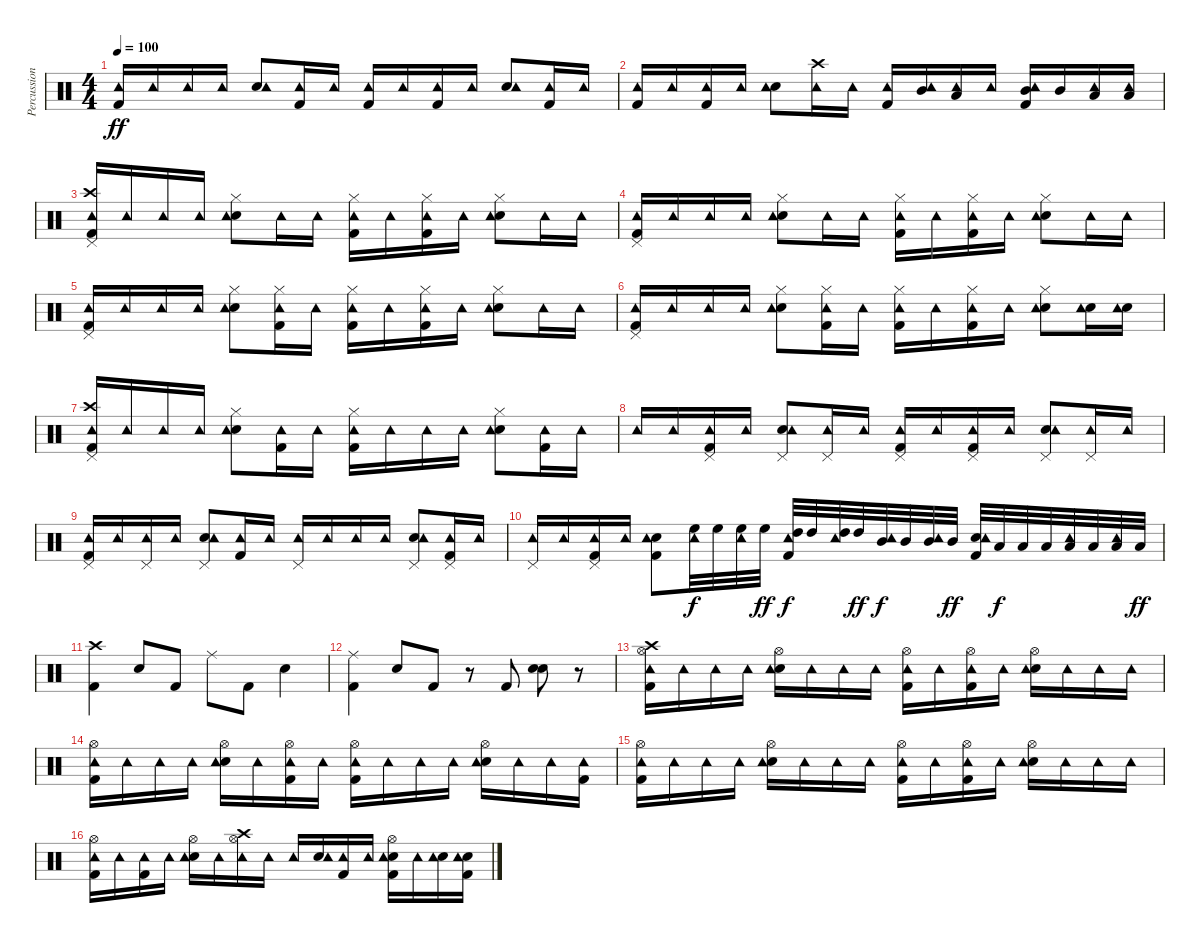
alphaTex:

\track ("Percussions" "Percussion") {instrument percussion}
\staff {score}
\articulation defaults
\ts (4 4)
\tempo 100
\clef neutral
\ks c
("Kick (hit) 2" "Tambourine (hit)").16{dy ff} "Tambourine (hit)".16 "Tambourine (hit)".16 "Tambourine (hit)".16 ("Snare (hit) 2" "Tambourine (hit)").8 ("Kick (hit) 2" "Tambourine (hit)").16 "Tambourine (hit)".16 ("Kick (hit) 2" "Tambourine (hit)").16 "Tambourine (hit)".16 ("Kick (hit) 2" "Tambourine (hit)").16 "Tambourine (hit)".16 ("Snare (hit) 2" "Tambourine (hit)").8 ("Kick (hit) 2" "Tambourine (hit)").16 "Tambourine (hit)".16 |
("Kick (hit) 2" "Tambourine (hit)").16 "Tambourine (hit)".16 ("Kick (hit) 2" "Tambourine (hit)").16 "Tambourine (hit)".16 ("Snare (hit) 2" "Tambourine (hit)").8 ("Crash high (hit)" "Tambourine (hit)").16 "Tambourine (hit)".16 ("Kick (hit) 2" "Tambourine (hit)").16 ("Mid Tom (hit)" "Tambourine (hit)").16 ("Low Tom (hit)" "Tambourine (hit)").16 "Tambourine (hit)".16 ("Kick (hit) 2" "Mid Tom (hit)" "Tambourine (hit)").16 "Mid Tom (hit)".16 ("Low Floor Tom (hit)" "Tambourine (hit)").16 ("Low Floor Tom (hit)" "Tambourine (hit)").16 |
("Kick (hit) 2" "Pedal Hi-Hat (hit)" "Crash high (hit)" "Tambourine (hit)").16 "Tambourine (hit)".16 "Tambourine (hit)".16 "Tambourine (hit)".16 ("Snare (hit) 2" "Hi-Hat (closed)" "Tambourine (hit)").8 "Tambourine (hit)".16 "Tambourine (hit)".16 ("Kick (hit) 2" "Hi-Hat (closed)" "Tambourine (hit)").16 "Tambourine (hit)".16 ("Kick (hit) 2" "Hi-Hat (closed)" "Tambourine (hit)").16 "Tambourine (hit)".16 ("Snare (hit) 2" "Hi-Hat (closed)" "Tambourine (hit)").8 "Tambourine (hit)".16 "Tambourine (hit)".16 |
("Kick (hit) 2" "Pedal Hi-Hat (hit)" "Tambourine (hit)").16 "Tambourine (hit)".16 "Tambourine (hit)".16 "Tambourine (hit)".16 ("Snare (hit) 2" "Hi-Hat (closed)" "Tambourine (hit)").8 "Tambourine (hit)".16 "Tambourine (hit)".16 ("Kick (hit) 2" "Hi-Hat (closed)" "Tambourine (hit)").16 "Tambourine (hit)".16 ("Kick (hit) 2" "Hi-Hat (closed)" "Tambourine (hit)").16 "Tambourine (hit)".16 ("Snare (hit) 2" "Hi-Hat (closed)" "Tambourine (hit)").8 "Tambourine (hit)".16 "Tambourine (hit)".16 |
("Kick (hit) 2" "Pedal Hi-Hat (hit)" "Tambourine (hit)").16 "Tambourine (hit)".16 "Tambourine (hit)".16 "Tambourine (hit)".16 ("Snare (hit) 2" "Hi-Hat (closed)" "Tambourine (hit)").8 ("Kick (hit) 2" "Hi-Hat (closed)" "Tambourine (hit)").16 "Tambourine (hit)".16 ("Kick (hit) 2" "Hi-Hat (closed)" "Tambourine (hit)").16 "Tambourine (hit)".16 ("Kick (hit) 2" "Hi-Hat (closed)" "Tambourine (hit)").16 "Tambourine (hit)".16 ("Snare (hit) 2" "Hi-Hat (closed)" "Tambourine (hit)").8 "Tambourine (hit)".16 "Tambourine (hit)".16 |
("Kick (hit) 2" "Pedal Hi-Hat (hit)" "Tambourine (hit)").16 "Tambourine (hit)".16 "Tambourine (hit)".16 "Tambourine (hit)".16 ("Snare (hit) 2" "Hi-Hat (closed)" "Tambourine (hit)").8 ("Kick (hit) 2" "Hi-Hat (closed)" "Tambourine (hit)").16 "Tambourine (hit)".16 ("Kick (hit) 2" "Hi-Hat (closed)" "Tambourine (hit)").16 "Tambourine (hit)".16 ("Kick (hit) 2" "Hi-Hat (closed)" "Tambourine (hit)").16 "Tambourine (hit)".16 ("Snare (hit) 2" "Hi-Hat (closed)" "Tambourine (hit)").8 ("Snare (hit) 2" "Tambourine (hit)").16 ("Snare (hit) 2" "Tambourine (hit)").16 |
("Kick (hit) 2" "Pedal Hi-Hat (hit)" "Crash high (hit)" "Tambourine (hit)").16 "Tambourine (hit)".16 "Tambourine (hit)".16 "Tambourine (hit)".16 ("Snare (hit) 2" "Hi-Hat (closed)" "Tambourine (hit)").8 ("Kick (hit) 2" "Tambourine (hit)").16 "Tambourine (hit)".16 ("Kick (hit) 2" "Hi-Hat (closed)" "Tambourine (hit)").16 "Tambourine (hit)".16 "Tambourine (hit)".16 "Tambourine (hit)".16 ("Snare (hit) 2" "Hi-Hat (closed)" "Tambourine (hit)").8 ("Kick (hit) 2" "Tambourine (hit)").16 "Tambourine (hit)".16 |
"Tambourine (hit)".16 "Tambourine (hit)".16 ("Kick (hit) 2" "Pedal Hi-Hat (hit)" "Tambourine (hit)").16 "Tambourine (hit)".16 ("Snare (hit) 2" "Pedal Hi-Hat (hit)" "Tambourine (hit)").8 ("Pedal Hi-Hat (hit)" "Tambourine (hit)").16 "Tambourine (hit)".16 ("Kick (hit) 2" "Pedal Hi-Hat (hit)" "Tambourine (hit)").16 "Tambourine (hit)".16 ("Kick (hit) 2" "Pedal Hi-Hat (hit)" "Tambourine (hit)").16 "Tambourine (hit)".16 ("Snare (hit) 2" "Pedal Hi-Hat (hit)" "Tambourine (hit)").8 ("Pedal Hi-Hat (hit)" "Tambourine (hit)").16 "Tambourine (hit)".16 |
("Kick (hit) 2" "Pedal Hi-Hat (hit)" "Tambourine (hit)").16 "Tambourine (hit)".16 ("Pedal Hi-Hat (hit)" "Tambourine (hit)").16 "Tambourine (hit)".16 ("Snare (hit) 2" "Pedal Hi-Hat (hit)" "Tambourine (hit)").8 ("Kick (hit) 2" "Tambourine (hit)").16 "Tambourine (hit)".16 ("Pedal Hi-Hat (hit)" "Tambourine (hit)").16 "Tambourine (hit)".16 "Tambourine (hit)".16 "Tambourine (hit)".16 ("Snare (hit) 2" "Pedal Hi-Hat (hit)" "Tambourine (hit)").8 ("Kick (hit) 2" "Pedal Hi-Hat (hit)" "Tambourine (hit)").16 "Tambourine (hit)".16 |
("Pedal Hi-Hat (hit)" "Tambourine (hit)").16 "Tambourine (hit)".16 ("Kick (hit) 2" "Pedal Hi-Hat (hit)" "Tambourine (hit)").16 "Tambourine (hit)".16 ("Kick (hit) 2" "Snare (hit) 2" "Tambourine (hit)").8 ("High Floor Tom (hit)" "Tambourine (hit)").32{dy f} "High Floor Tom (hit)".32 ("High Floor Tom (hit)" "Tambourine (hit)").32 "High Floor Tom (hit)".32{dy ff} ("Kick (hit) 2" "High Tom (hit)" "Tambourine (hit)").32{dy f} "High Tom (hit)".32 ("High Tom (hit)" "Tambourine (hit)").32 "High Tom (hit)".32{dy ff} ("Mid Tom (hit)" "Tambourine (hit)").32{dy f} "Mid Tom (hit)".32 ("Mid Tom (hit)" "Tambourine (hit)").32 "Mid Tom (hit)".32{dy ff} ("Kick (hit) 2" "Snare (hit) 2" "Tambourine (hit)").32 "Low Tom (hit)".32{dy f} "Low Tom (hit)".32 "Low Tom (hit)".32 ("Low Tom (hit)" "Tambourine (hit)").32 "Low Tom (hit)".32 ("Low Tom (hit)" "Tambourine (hit)").32 "Low Tom (hit)".32{dy ff} |
("Kick (hit) 2" "Crash high (hit)").4 "Snare (hit) 2".8 "Kick (hit) 2".8 "Ride (middle)".8 "Kick (hit) 2".8 "Snare (hit) 2".4 |
("Kick (hit) 2" "Ride (middle)").4 "Snare (hit) 2".8 "Kick (hit) 2".8 r.8 "Kick (hit) 2".8 ("Snare (hit) 2" "Snare (hit) 2").8 r.8 |
("Kick (hit) 2" "Hi-Hat (open)" "Crash high (hit)" "Tambourine (hit)").16 "Tambourine (hit)".16 "Tambourine (hit)".16 "Tambourine (hit)".16 ("Snare (hit) 2" "Hi-Hat (open)" "Tambourine (hit)").16 "Tambourine (hit)".16 "Tambourine (hit)".16 "Tambourine (hit)".16 ("Kick (hit) 2" "Hi-Hat (open)" "Tambourine (hit)").16 "Tambourine (hit)".16 ("Kick (hit) 2" "Hi-Hat (open)" "Tambourine (hit)").16 "Tambourine (hit)".16 ("Snare (hit) 2" "Hi-Hat (open)" "Tambourine (hit)").16 "Tambourine (hit)".16 "Tambourine (hit)".16 "Tambourine (hit)".16 |
("Kick (hit) 2" "Hi-Hat (open)" "Tambourine (hit)").16 "Tambourine (hit)".16 "Tambourine (hit)".16 "Tambourine (hit)".16 ("Snare (hit) 2" "Hi-Hat (open)" "Tambourine (hit)").16 "Tambourine (hit)".16 ("Kick (hit) 2" "Hi-Hat (open)" "Tambourine (hit)").16 "Tambourine (hit)".16 ("Kick (hit) 2" "Hi-Hat (open)" "Tambourine (hit)").16 "Tambourine (hit)".16 "Tambourine (hit)".16 "Tambourine (hit)".16 ("Snare (hit) 2" "Hi-Hat (open)" "Tambourine (hit)").16 "Tambourine (hit)".16 "Tambourine (hit)".16 ("Kick (hit) 2" "Tambourine (hit)").16 |
("Kick (hit) 2" "Hi-Hat (open)" "Tambourine (hit)").16 "Tambourine (hit)".16 "Tambourine (hit)".16 "Tambourine (hit)".16 ("Snare (hit) 2" "Hi-Hat (open)" "Tambourine (hit)").16 "Tambourine (hit)".16 "Tambourine (hit)".16 "Tambourine (hit)".16 ("Kick (hit) 2" "Hi-Hat (open)" "Tambourine (hit)").16 "Tambourine (hit)".16 ("Kick (hit) 2" "Hi-Hat (open)" "Tambourine (hit)").16 "Tambourine (hit)".16 ("Snare (hit) 2" "Hi-Hat (open)" "Tambourine (hit)").16 "Tambourine (hit)".16 "Tambourine (hit)".16 "Tambourine (hit)".16 |
("Kick (hit) 2" "Hi-Hat (open)" "Tambourine (hit)").16 "Tambourine (hit)".16 ("Kick (hit) 2" "Tambourine (hit)").16 "Tambourine (hit)".16 ("Snare (hit) 2" "Hi-Hat (open)" "Tambourine (hit)").16 "Tambourine (hit)".16 ("Hi-Hat (open)" "Crash high (hit)" "Tambourine (hit)").16 "Tambourine (hit)".16 "Tambourine (hit)".16 ("Snare (hit) 2" "Tambourine (hit)").16 ("Kick (hit) 2" "Tambourine (hit)").16 "Tambourine (hit)".16 ("Kick (hit) 2" "Snare (hit) 2" "Hi-Hat (open)" "Tambourine (hit)").16 "Tambourine (hit)".16 ("Snare (hit) 2" "Tambourine (hit)").16 ("Kick (hit) 2" "Snare (hit) 2" "Tambourine (hit)").16
